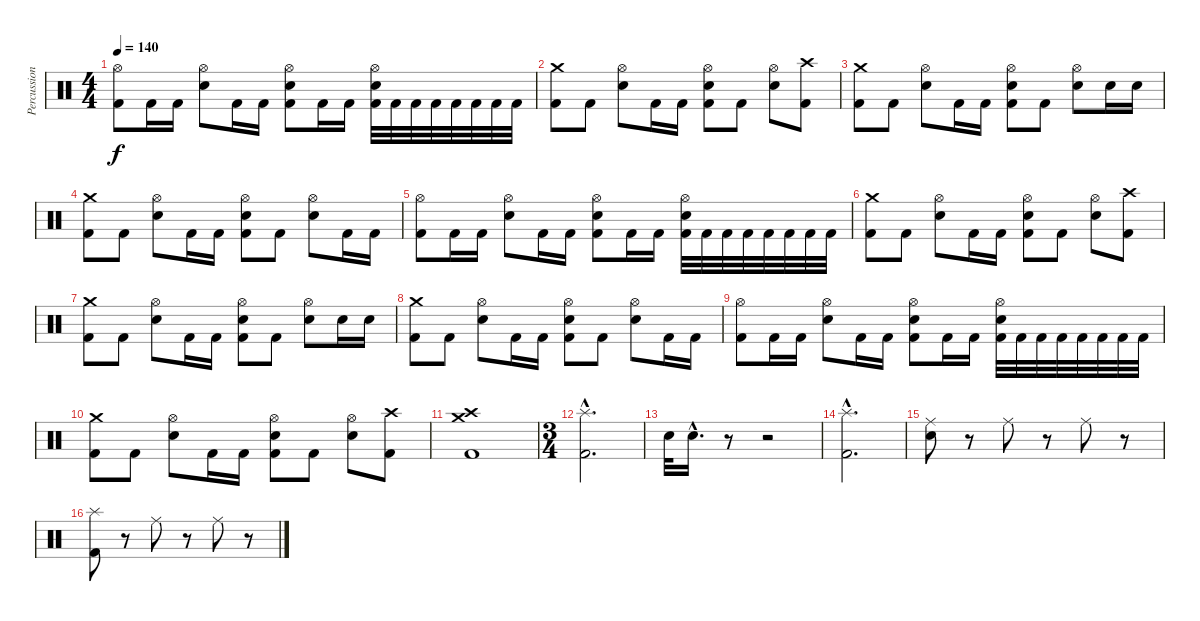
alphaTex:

\track ("Percussion" "Percussion") {instrument percussion}
\staff {score}
\articulation defaults
\ts (4 4)
\tempo 140
\clef neutral
\ks c
("Hi-Hat (open)" "Kick (hit) 2").8{dy f} "Kick (hit) 2".16 "Kick (hit) 2".16 ("Hi-Hat (open)" "Electric Snare (hit)").8 "Kick (hit) 2".16 "Kick (hit) 2".16 ("Hi-Hat (open)" "Electric Snare (hit)" "Kick (hit) 2").8 "Kick (hit) 2".16 "Kick (hit) 2".16 ("Hi-Hat (open)" "Electric Snare (hit)" "Kick (hit) 2").32 "Kick (hit) 2".32 "Kick (hit) 2".32 "Kick (hit) 2".32 "Kick (hit) 2".32 "Kick (hit) 2".32 "Kick (hit) 2".32 "Kick (hit) 2".32 |
("Crash medium (hit)" "Kick (hit) 2").8 "Kick (hit) 2".8 ("Hi-Hat (open)" "Electric Snare (hit)").8 "Kick (hit) 2".16 "Kick (hit) 2".16 ("Hi-Hat (open)" "Electric Snare (hit)" "Kick (hit) 2").8 "Kick (hit) 2".8 ("Hi-Hat (open)" "Electric Snare (hit)").8 ("Crash high (hit)" "Kick (hit) 2").8 |
("Crash medium (hit)" "Kick (hit) 2").8 "Kick (hit) 2".8 ("Hi-Hat (open)" "Electric Snare (hit)").8 "Kick (hit) 2".16 "Kick (hit) 2".16 ("Hi-Hat (open)" "Electric Snare (hit)" "Kick (hit) 2").8 "Kick (hit) 2".8 ("Hi-Hat (open)" "Electric Snare (hit)").8 "Electric Snare (hit)".16 "Electric Snare (hit)".16 |
("Crash medium (hit)" "Kick (hit) 2").8 "Kick (hit) 2".8 ("Hi-Hat (open)" "Electric Snare (hit)").8 "Kick (hit) 2".16 "Kick (hit) 2".16 ("Hi-Hat (open)" "Electric Snare (hit)" "Kick (hit) 2").8 "Kick (hit) 2".8 ("Hi-Hat (open)" "Electric Snare (hit)").8 "Kick (hit) 2".16 "Kick (hit) 2".16 |
("Hi-Hat (open)" "Kick (hit) 2").8 "Kick (hit) 2".16 "Kick (hit) 2".16 ("Hi-Hat (open)" "Electric Snare (hit)").8 "Kick (hit) 2".16 "Kick (hit) 2".16 ("Hi-Hat (open)" "Electric Snare (hit)" "Kick (hit) 2").8 "Kick (hit) 2".16 "Kick (hit) 2".16 ("Hi-Hat (open)" "Electric Snare (hit)" "Kick (hit) 2").32 "Kick (hit) 2".32 "Kick (hit) 2".32 "Kick (hit) 2".32 "Kick (hit) 2".32 "Kick (hit) 2".32 "Kick (hit) 2".32 "Kick (hit) 2".32 |
("Crash medium (hit)" "Kick (hit) 2").8 "Kick (hit) 2".8 ("Hi-Hat (open)" "Electric Snare (hit)").8 "Kick (hit) 2".16 "Kick (hit) 2".16 ("Hi-Hat (open)" "Electric Snare (hit)" "Kick (hit) 2").8 "Kick (hit) 2".8 ("Hi-Hat (open)" "Electric Snare (hit)").8 ("Crash high (hit)" "Kick (hit) 2").8 |
("Crash medium (hit)" "Kick (hit) 2").8 "Kick (hit) 2".8 ("Hi-Hat (open)" "Electric Snare (hit)").8 "Kick (hit) 2".16 "Kick (hit) 2".16 ("Hi-Hat (open)" "Electric Snare (hit)" "Kick (hit) 2").8 "Kick (hit) 2".8 ("Hi-Hat (open)" "Electric Snare (hit)").8 "Electric Snare (hit)".16 "Electric Snare (hit)".16 |
("Crash medium (hit)" "Kick (hit) 2").8 "Kick (hit) 2".8 ("Hi-Hat (open)" "Electric Snare (hit)").8 "Kick (hit) 2".16 "Kick (hit) 2".16 ("Hi-Hat (open)" "Electric Snare (hit)" "Kick (hit) 2").8 "Kick (hit) 2".8 ("Hi-Hat (open)" "Electric Snare (hit)").8 "Kick (hit) 2".16 "Kick (hit) 2".16 |
("Hi-Hat (open)" "Kick (hit) 2").8 "Kick (hit) 2".16 "Kick (hit) 2".16 ("Hi-Hat (open)" "Electric Snare (hit)").8 "Kick (hit) 2".16 "Kick (hit) 2".16 ("Hi-Hat (open)" "Electric Snare (hit)" "Kick (hit) 2").8 "Kick (hit) 2".16 "Kick (hit) 2".16 ("Hi-Hat (open)" "Electric Snare (hit)" "Kick (hit) 2").32 "Kick (hit) 2".32 "Kick (hit) 2".32 "Kick (hit) 2".32 "Kick (hit) 2".32 "Kick (hit) 2".32 "Kick (hit) 2".32 "Kick (hit) 2".32 |
("Crash medium (hit)" "Kick (hit) 2").8 "Kick (hit) 2".8 ("Hi-Hat (open)" "Electric Snare (hit)").8 "Kick (hit) 2".16 "Kick (hit) 2".16 ("Hi-Hat (open)" "Electric Snare (hit)" "Kick (hit) 2").8 "Kick (hit) 2".8 ("Hi-Hat (open)" "Electric Snare (hit)").8 ("Crash high (hit)" "Kick (hit) 2").8 |
("Crash medium (hit)" "Crash high (hit)" "Kick (hit) 2").1 |
\ts (3 4)
("Splash (hit)"{hac} "Kick (hit) 2"{hac}).2{d} |
"Electric Snare (hit)".32 "Electric Snare (hit)"{hac}.16{d} r.8 r.2 |
("Splash (hit)"{hac} "Kick (hit) 2"{hac}).2{d} |
("Ride (middle)" "Electric Snare (hit)").8 r.8 "Ride (middle)".8 r.8 "Ride (middle)".8 r.8 |
("Splash (hit)" "Kick (hit) 2").8 r.8 "Ride (middle)".8 r.8 "Ride (middle)".8 r.8
